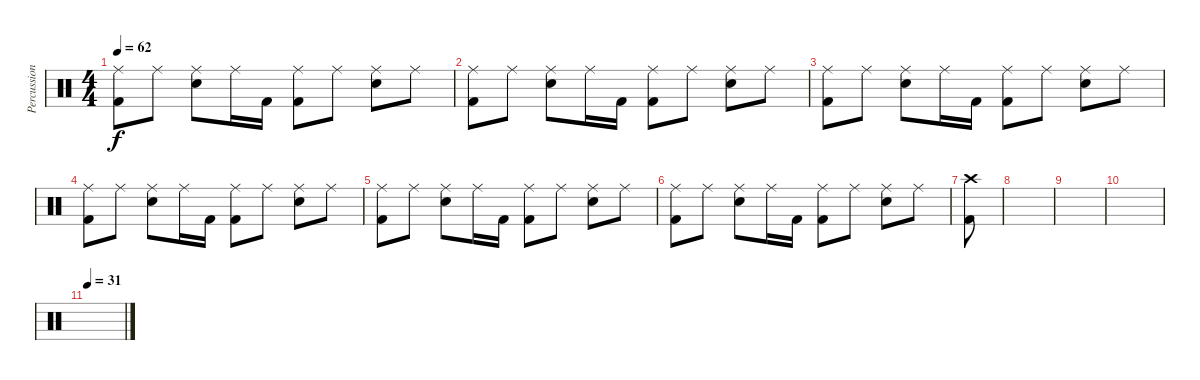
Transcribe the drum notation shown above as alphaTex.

\track ("Percussion" "Percussion") {instrument percussion}
\staff {score}
\articulation defaults
\ts (4 4)
\tempo 62
\clef neutral
\ks c
("Ride (middle)" "Kick (hit) 2").8{dy f} "Ride (middle)".8 ("Ride (middle)" "Snare (hit) 2").8 "Ride (middle)".16 "Kick (hit) 2".16 ("Ride (middle)" "Kick (hit) 2").8 "Ride (middle)".8 ("Ride (middle)" "Snare (hit) 2").8 "Ride (middle)".8 |
("Ride (middle)" "Kick (hit) 2").8 "Ride (middle)".8 ("Ride (middle)" "Snare (hit) 2").8 "Ride (middle)".16 "Kick (hit) 2".16 ("Ride (middle)" "Kick (hit) 2").8 "Ride (middle)".8 ("Ride (middle)" "Snare (hit) 2").8 "Ride (middle)".8 |
("Ride (middle)" "Kick (hit) 2").8 "Ride (middle)".8 ("Ride (middle)" "Snare (hit) 2").8 "Ride (middle)".16 "Kick (hit) 2".16 ("Ride (middle)" "Kick (hit) 2").8 "Ride (middle)".8 ("Ride (middle)" "Snare (hit) 2").8 "Ride (middle)".8 |
("Ride (middle)" "Kick (hit) 2").8 "Ride (middle)".8 ("Ride (middle)" "Snare (hit) 2").8 "Ride (middle)".16 "Kick (hit) 2".16 ("Ride (middle)" "Kick (hit) 2").8 "Ride (middle)".8 ("Ride (middle)" "Snare (hit) 2").8 "Ride (middle)".8 |
("Ride (middle)" "Kick (hit) 2").8 "Ride (middle)".8 ("Ride (middle)" "Snare (hit) 2").8 "Ride (middle)".16 "Kick (hit) 2".16 ("Ride (middle)" "Kick (hit) 2").8 "Ride (middle)".8 ("Ride (middle)" "Snare (hit) 2").8 "Ride (middle)".8 |
("Ride (middle)" "Kick (hit) 2").8 "Ride (middle)".8 ("Ride (middle)" "Snare (hit) 2").8 "Ride (middle)".16 "Kick (hit) 2".16 ("Ride (middle)" "Kick (hit) 2").8 "Ride (middle)".8 ("Ride (middle)" "Snare (hit) 2").8 "Ride (middle)".8 |
("Crash high (hit)" "Kick (hit) 2").8 |
|
|
|
\tempo 31
